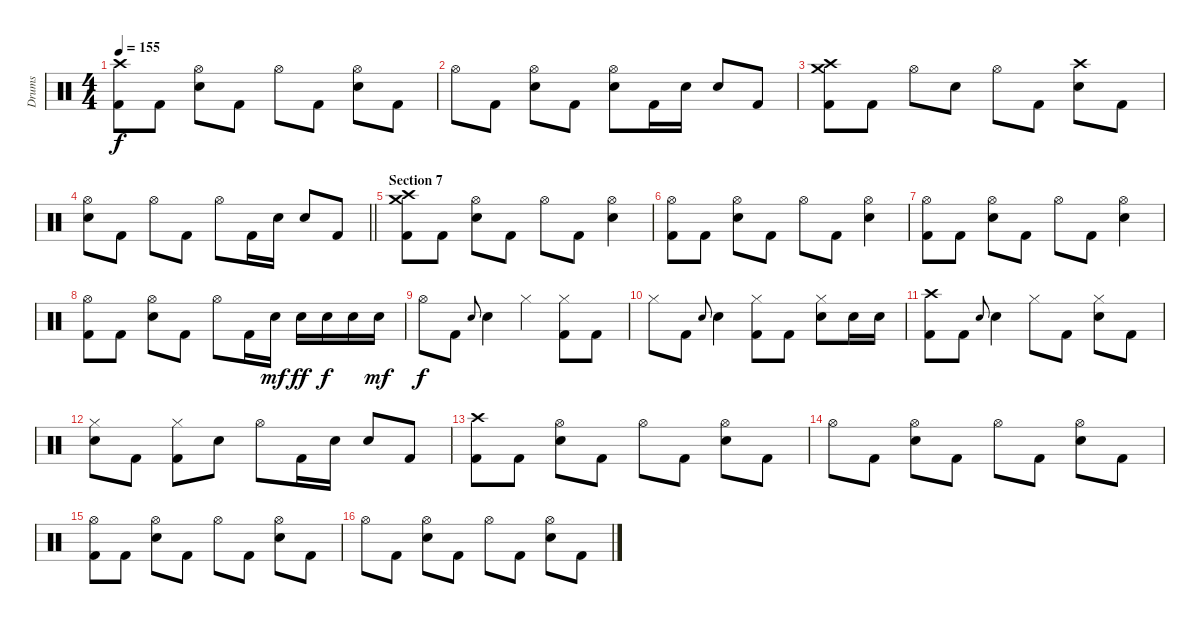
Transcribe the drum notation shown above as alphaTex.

\track ("Drums" "Drums") {instrument percussion}
\staff {score}
\articulation defaults
\ts (4 4)
\tempo 155
\clef neutral
\ks c
("Crash high (hit)" "Kick (hit) 2").8{dy f} "Kick (hit) 2".8 ("Hi-Hat (open)" "Electric Snare (hit)").8 "Kick (hit) 2".8 "Hi-Hat (open)".8 "Kick (hit) 2".8 ("Hi-Hat (open)" "Electric Snare (hit)").8 "Kick (hit) 2".8 |
"Hi-Hat (open)".8 "Kick (hit) 2".8 ("Hi-Hat (open)" "Electric Snare (hit)").8 "Kick (hit) 2".8 ("Hi-Hat (open)" "Electric Snare (hit)").8 "Kick (hit) 2".16 "Electric Snare (hit)".16 "Electric Snare (hit)".8 "Kick (hit) 2".8 |
("Crash high (hit)" "Crash medium (hit)" "Kick (hit) 2").8 "Kick (hit) 2".8 "Hi-Hat (open)".8 "Electric Snare (hit)".8 "Hi-Hat (open)".8 "Kick (hit) 2".8 ("Crash high (hit)" "Electric Snare (hit)").8 "Kick (hit) 2".8 |
\barLineRight lightlight
("Hi-Hat (open)" "Electric Snare (hit)").8 "Kick (hit) 2".8 "Hi-Hat (open)".8 "Kick (hit) 2".8 "Hi-Hat (open)".8 "Kick (hit) 2".16 "Electric Snare (hit)".16 "Electric Snare (hit)".8 "Kick (hit) 2".8 |
\section ("" "Section 7")
("Crash high (hit)" "Crash medium (hit)" "Kick (hit) 2").8 "Kick (hit) 2".8 ("Hi-Hat (open)" "Electric Snare (hit)").8 "Kick (hit) 2".8 "Hi-Hat (open)".8 "Kick (hit) 2".8 ("Hi-Hat (open)" "Electric Snare (hit)").4 |
("Hi-Hat (open)" "Kick (hit) 2").8 "Kick (hit) 2".8 ("Hi-Hat (open)" "Electric Snare (hit)").8 "Kick (hit) 2".8 "Hi-Hat (open)".8 "Kick (hit) 2".8 ("Hi-Hat (open)" "Electric Snare (hit)").4 |
("Hi-Hat (open)" "Kick (hit) 2").8 "Kick (hit) 2".8 ("Hi-Hat (open)" "Electric Snare (hit)").8 "Kick (hit) 2".8 "Hi-Hat (open)".8 "Kick (hit) 2".8 ("Hi-Hat (open)" "Electric Snare (hit)").4 |
("Hi-Hat (open)" "Kick (hit) 2").8 "Kick (hit) 2".8 ("Hi-Hat (open)" "Electric Snare (hit)").8 "Kick (hit) 2".8 "Hi-Hat (open)".8 "Kick (hit) 2".16 "Electric Snare (hit)".16{dy mf} "Electric Snare (hit)".16{dy ff} "Electric Snare (hit)".16{dy f} "Electric Snare (hit)".16 "Electric Snare (hit)".16{dy mf} |
"Hi-Hat (open)".8{dy f} "Kick (hit) 2".8 "Electric Snare (hit)".8{gr onbeat} "Electric Snare (hit)".4 "Hi-Hat (closed)".4 ("Hi-Hat (closed)" "Kick (hit) 2").8 "Kick (hit) 2".8 |
"Hi-Hat (closed)".8 "Kick (hit) 2".8 "Electric Snare (hit)".8{gr onbeat} "Electric Snare (hit)".4 ("Hi-Hat (closed)" "Kick (hit) 2").8 "Kick (hit) 2".8 ("Hi-Hat (closed)" "Electric Snare (hit)").8 "Electric Snare (hit)".16 "Electric Snare (hit)".16 |
("Crash high (hit)" "Kick (hit) 2").8 "Kick (hit) 2".8 "Electric Snare (hit)".8{gr onbeat} "Electric Snare (hit)".4 "Hi-Hat (closed)".8 "Kick (hit) 2".8 ("Hi-Hat (closed)" "Electric Snare (hit)").8 "Kick (hit) 2".8 |
("Hi-Hat (closed)" "Electric Snare (hit)").8 "Kick (hit) 2".8 ("Hi-Hat (closed)" "Kick (hit) 2").8 "Electric Snare (hit)".8 "Hi-Hat (open)".8 "Kick (hit) 2".16 "Electric Snare (hit)".16 "Electric Snare (hit)".8 "Kick (hit) 2".8 |
("Crash high (hit)" "Kick (hit) 2").8 "Kick (hit) 2".8 ("Hi-Hat (open)" "Electric Snare (hit)").8 "Kick (hit) 2".8 "Hi-Hat (open)".8 "Kick (hit) 2".8 ("Hi-Hat (open)" "Electric Snare (hit)").8 "Kick (hit) 2".8 |
"Hi-Hat (open)".8 "Kick (hit) 2".8 ("Hi-Hat (open)" "Electric Snare (hit)").8 "Kick (hit) 2".8 "Hi-Hat (open)".8 "Kick (hit) 2".8 ("Hi-Hat (open)" "Electric Snare (hit)").8 "Kick (hit) 2".8 |
("Hi-Hat (open)" "Kick (hit) 2").8 "Kick (hit) 2".8 ("Hi-Hat (open)" "Electric Snare (hit)").8 "Kick (hit) 2".8 "Hi-Hat (open)".8 "Kick (hit) 2".8 ("Hi-Hat (open)" "Electric Snare (hit)").8 "Kick (hit) 2".8 |
"Hi-Hat (open)".8 "Kick (hit) 2".8 ("Hi-Hat (open)" "Electric Snare (hit)").8 "Kick (hit) 2".8 "Hi-Hat (open)".8 "Kick (hit) 2".8 ("Hi-Hat (open)" "Electric Snare (hit)").8 "Kick (hit) 2".8
